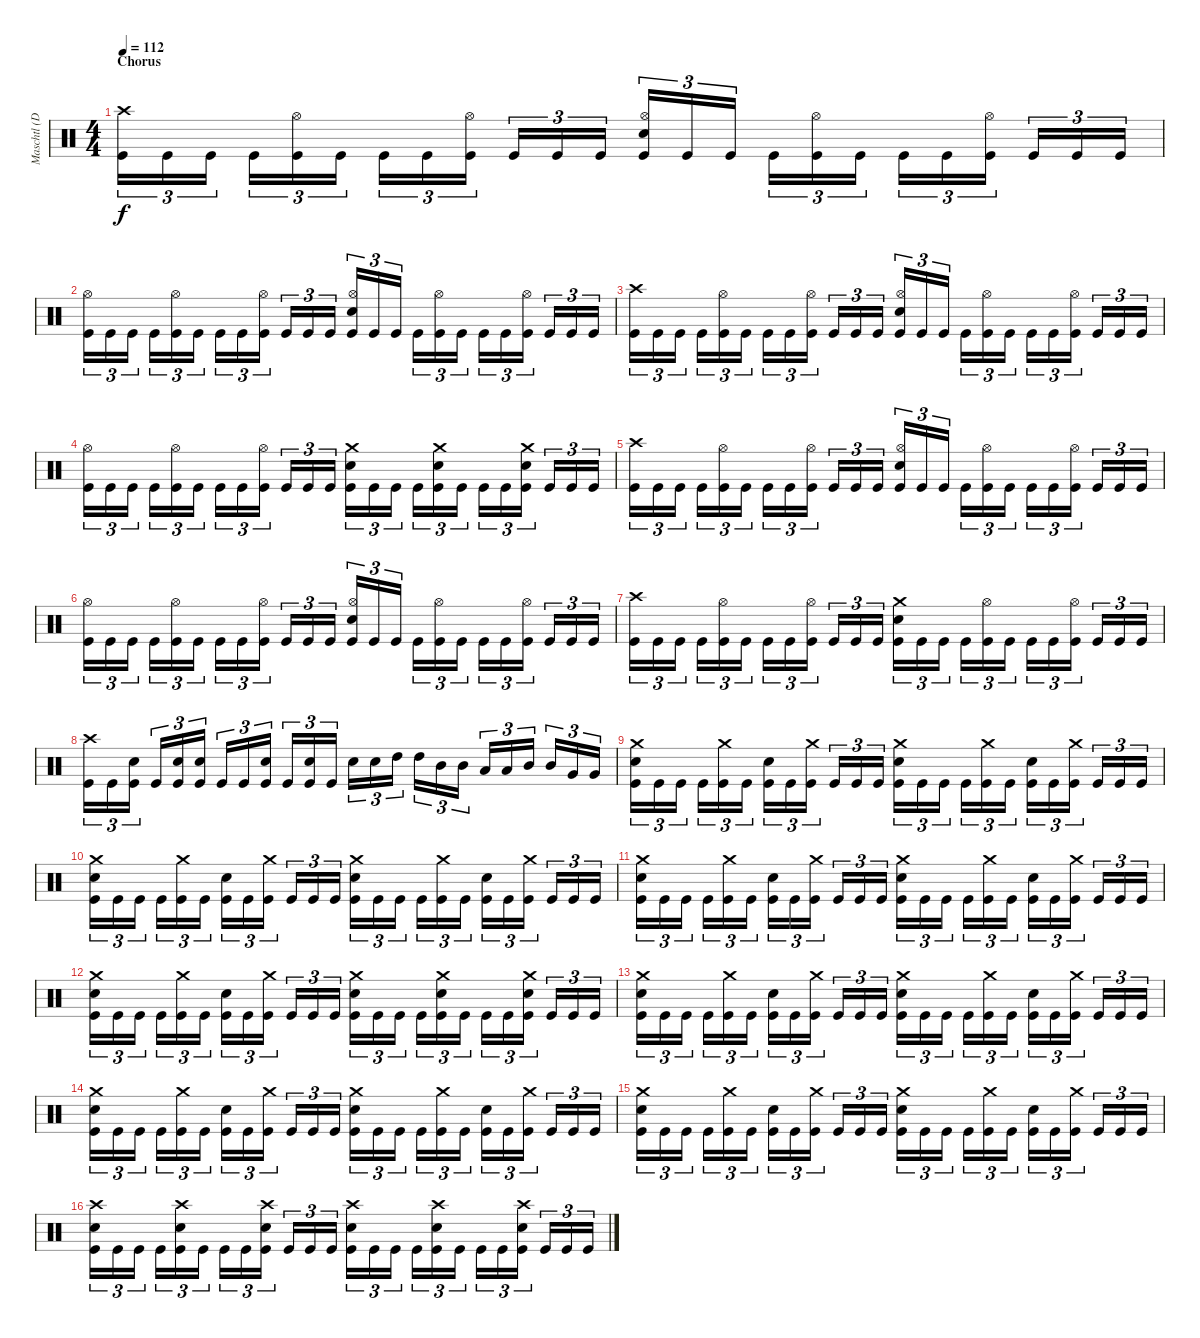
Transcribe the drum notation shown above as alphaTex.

\track ("Maschtl (Drums)" "Maschtl (D") {instrument percussion}
\staff {score}
\articulation defaults
\ts (4 4)
\section ("" "Chorus")
\tempo 112
\clef neutral
\ks c
("Crash high (hit)" "Kick (hit)").16{tu (3 2) dy f} "Kick (hit)".16{tu (3 2)} "Kick (hit)".16{tu (3 2)} "Kick (hit)".16{tu (3 2)} ("Hi-Hat (open)" "Kick (hit)").16{tu (3 2)} "Kick (hit)".16{tu (3 2)} "Kick (hit)".16{tu (3 2)} "Kick (hit)".16{tu (3 2)} ("Hi-Hat (open)" "Kick (hit)").16{tu (3 2)} "Kick (hit)".16{tu (3 2)} "Kick (hit)".16{tu (3 2)} "Kick (hit)".16{tu (3 2)} ("Hi-Hat (open)" "Electric Snare (hit)" "Kick (hit)").16{tu (3 2)} "Kick (hit)".16{tu (3 2)} "Kick (hit)".16{tu (3 2)} "Kick (hit)".16{tu (3 2)} ("Hi-Hat (open)" "Kick (hit)").16{tu (3 2)} "Kick (hit)".16{tu (3 2)} "Kick (hit)".16{tu (3 2)} "Kick (hit)".16{tu (3 2)} ("Hi-Hat (open)" "Kick (hit)").16{tu (3 2)} "Kick (hit)".16{tu (3 2)} "Kick (hit)".16{tu (3 2)} "Kick (hit)".16{tu (3 2)} |
("Hi-Hat (open)" "Kick (hit)").16{tu (3 2)} "Kick (hit)".16{tu (3 2)} "Kick (hit)".16{tu (3 2)} "Kick (hit)".16{tu (3 2)} ("Hi-Hat (open)" "Kick (hit)").16{tu (3 2)} "Kick (hit)".16{tu (3 2)} "Kick (hit)".16{tu (3 2)} "Kick (hit)".16{tu (3 2)} ("Hi-Hat (open)" "Kick (hit)").16{tu (3 2)} "Kick (hit)".16{tu (3 2)} "Kick (hit)".16{tu (3 2)} "Kick (hit)".16{tu (3 2)} ("Hi-Hat (open)" "Electric Snare (hit)" "Kick (hit)").16{tu (3 2)} "Kick (hit)".16{tu (3 2)} "Kick (hit)".16{tu (3 2)} "Kick (hit)".16{tu (3 2)} ("Hi-Hat (open)" "Kick (hit)").16{tu (3 2)} "Kick (hit)".16{tu (3 2)} "Kick (hit)".16{tu (3 2)} "Kick (hit)".16{tu (3 2)} ("Hi-Hat (open)" "Kick (hit)").16{tu (3 2)} "Kick (hit)".16{tu (3 2)} "Kick (hit)".16{tu (3 2)} "Kick (hit)".16{tu (3 2)} |
("Crash high (hit)" "Kick (hit)").16{tu (3 2)} "Kick (hit)".16{tu (3 2)} "Kick (hit)".16{tu (3 2)} "Kick (hit)".16{tu (3 2)} ("Hi-Hat (open)" "Kick (hit)").16{tu (3 2)} "Kick (hit)".16{tu (3 2)} "Kick (hit)".16{tu (3 2)} "Kick (hit)".16{tu (3 2)} ("Hi-Hat (open)" "Kick (hit)").16{tu (3 2)} "Kick (hit)".16{tu (3 2)} "Kick (hit)".16{tu (3 2)} "Kick (hit)".16{tu (3 2)} ("Hi-Hat (open)" "Electric Snare (hit)" "Kick (hit)").16{tu (3 2)} "Kick (hit)".16{tu (3 2)} "Kick (hit)".16{tu (3 2)} "Kick (hit)".16{tu (3 2)} ("Hi-Hat (open)" "Kick (hit)").16{tu (3 2)} "Kick (hit)".16{tu (3 2)} "Kick (hit)".16{tu (3 2)} "Kick (hit)".16{tu (3 2)} ("Hi-Hat (open)" "Kick (hit)").16{tu (3 2)} "Kick (hit)".16{tu (3 2)} "Kick (hit)".16{tu (3 2)} "Kick (hit)".16{tu (3 2)} |
("Hi-Hat (open)" "Kick (hit)").16{tu (3 2)} "Kick (hit)".16{tu (3 2)} "Kick (hit)".16{tu (3 2)} "Kick (hit)".16{tu (3 2)} ("Hi-Hat (open)" "Kick (hit)").16{tu (3 2)} "Kick (hit)".16{tu (3 2)} "Kick (hit)".16{tu (3 2)} "Kick (hit)".16{tu (3 2)} ("Hi-Hat (open)" "Kick (hit)").16{tu (3 2)} "Kick (hit)".16{tu (3 2)} "Kick (hit)".16{tu (3 2)} "Kick (hit)".16{tu (3 2)} ("Crash medium (hit)" "Electric Snare (hit)" "Kick (hit)").16{tu (3 2)} "Kick (hit)".16{tu (3 2)} "Kick (hit)".16{tu (3 2)} "Kick (hit)".16{tu (3 2)} ("Crash medium (hit)" "Electric Snare (hit)" "Kick (hit)").16{tu (3 2)} "Kick (hit)".16{tu (3 2)} "Kick (hit)".16{tu (3 2)} "Kick (hit)".16{tu (3 2)} ("Crash medium (hit)" "Electric Snare (hit)" "Kick (hit)").16{tu (3 2)} "Kick (hit)".16{tu (3 2)} "Kick (hit)".16{tu (3 2)} "Kick (hit)".16{tu (3 2)} |
("Crash high (hit)" "Kick (hit)").16{tu (3 2)} "Kick (hit)".16{tu (3 2)} "Kick (hit)".16{tu (3 2)} "Kick (hit)".16{tu (3 2)} ("Hi-Hat (open)" "Kick (hit)").16{tu (3 2)} "Kick (hit)".16{tu (3 2)} "Kick (hit)".16{tu (3 2)} "Kick (hit)".16{tu (3 2)} ("Hi-Hat (open)" "Kick (hit)").16{tu (3 2)} "Kick (hit)".16{tu (3 2)} "Kick (hit)".16{tu (3 2)} "Kick (hit)".16{tu (3 2)} ("Hi-Hat (open)" "Electric Snare (hit)" "Kick (hit)").16{tu (3 2)} "Kick (hit)".16{tu (3 2)} "Kick (hit)".16{tu (3 2)} "Kick (hit)".16{tu (3 2)} ("Hi-Hat (open)" "Kick (hit)").16{tu (3 2)} "Kick (hit)".16{tu (3 2)} "Kick (hit)".16{tu (3 2)} "Kick (hit)".16{tu (3 2)} ("Hi-Hat (open)" "Kick (hit)").16{tu (3 2)} "Kick (hit)".16{tu (3 2)} "Kick (hit)".16{tu (3 2)} "Kick (hit)".16{tu (3 2)} |
("Hi-Hat (open)" "Kick (hit)").16{tu (3 2)} "Kick (hit)".16{tu (3 2)} "Kick (hit)".16{tu (3 2)} "Kick (hit)".16{tu (3 2)} ("Hi-Hat (open)" "Kick (hit)").16{tu (3 2)} "Kick (hit)".16{tu (3 2)} "Kick (hit)".16{tu (3 2)} "Kick (hit)".16{tu (3 2)} ("Hi-Hat (open)" "Kick (hit)").16{tu (3 2)} "Kick (hit)".16{tu (3 2)} "Kick (hit)".16{tu (3 2)} "Kick (hit)".16{tu (3 2)} ("Hi-Hat (open)" "Electric Snare (hit)" "Kick (hit)").16{tu (3 2)} "Kick (hit)".16{tu (3 2)} "Kick (hit)".16{tu (3 2)} "Kick (hit)".16{tu (3 2)} ("Hi-Hat (open)" "Kick (hit)").16{tu (3 2)} "Kick (hit)".16{tu (3 2)} "Kick (hit)".16{tu (3 2)} "Kick (hit)".16{tu (3 2)} ("Hi-Hat (open)" "Kick (hit)").16{tu (3 2)} "Kick (hit)".16{tu (3 2)} "Kick (hit)".16{tu (3 2)} "Kick (hit)".16{tu (3 2)} |
("Crash high (hit)" "Kick (hit)").16{tu (3 2)} "Kick (hit)".16{tu (3 2)} "Kick (hit)".16{tu (3 2)} "Kick (hit)".16{tu (3 2)} ("Hi-Hat (open)" "Kick (hit)").16{tu (3 2)} "Kick (hit)".16{tu (3 2)} "Kick (hit)".16{tu (3 2)} "Kick (hit)".16{tu (3 2)} ("Hi-Hat (open)" "Kick (hit)").16{tu (3 2)} "Kick (hit)".16{tu (3 2)} "Kick (hit)".16{tu (3 2)} "Kick (hit)".16{tu (3 2)} ("Crash medium (hit)" "Electric Snare (hit)" "Kick (hit)").16{tu (3 2)} "Kick (hit)".16{tu (3 2)} "Kick (hit)".16{tu (3 2)} "Kick (hit)".16{tu (3 2)} ("Hi-Hat (open)" "Kick (hit)").16{tu (3 2)} "Kick (hit)".16{tu (3 2)} "Kick (hit)".16{tu (3 2)} "Kick (hit)".16{tu (3 2)} ("Hi-Hat (open)" "Kick (hit)").16{tu (3 2)} "Kick (hit)".16{tu (3 2)} "Kick (hit)".16{tu (3 2)} "Kick (hit)".16{tu (3 2)} |
("Crash high (hit)" "Kick (hit)").16{tu (3 2)} "Kick (hit)".16{tu (3 2)} ("Electric Snare (hit)" "Kick (hit)").16{tu (3 2)} "Kick (hit)".16{tu (3 2)} ("Electric Snare (hit)" "Kick (hit)").16{tu (3 2)} ("Electric Snare (hit)" "Kick (hit)").16{tu (3 2)} "Kick (hit)".16{tu (3 2)} "Kick (hit)".16{tu (3 2)} ("Electric Snare (hit)" "Kick (hit)").16{tu (3 2)} "Kick (hit)".16{tu (3 2)} ("Electric Snare (hit)" "Kick (hit)").16{tu (3 2)} "Kick (hit)".16{tu (3 2)} "Electric Snare (hit)".16{tu (3 2)} "Electric Snare (hit)".16{tu (3 2)} "High Tom (hit)".16{tu (3 2)} "High Tom (hit)".16{tu (3 2)} "Mid Tom (hit)".16{tu (3 2)} "Mid Tom (hit)".16{tu (3 2)} "Low Tom (hit)".16{tu (3 2)} "Low Tom (hit)".16{tu (3 2)} "Mid Tom (hit)".16{tu (3 2)} "Mid Tom (hit)".16{tu (3 2)} "Very Low Tom (hit)".16{tu (3 2)} "Very Low Tom (hit)".16{tu (3 2)} |
("Crash medium (hit)" "Electric Snare (hit)" "Kick (hit)").16{tu (3 2)} "Kick (hit)".16{tu (3 2)} "Kick (hit)".16{tu (3 2)} "Kick (hit)".16{tu (3 2)} ("Crash medium (hit)" "Kick (hit)").16{tu (3 2)} "Kick (hit)".16{tu (3 2)} ("Electric Snare (hit)" "Kick (hit)").16{tu (3 2)} "Kick (hit)".16{tu (3 2)} ("Crash medium (hit)" "Kick (hit)").16{tu (3 2)} "Kick (hit)".16{tu (3 2)} "Kick (hit)".16{tu (3 2)} "Kick (hit)".16{tu (3 2)} ("Crash medium (hit)" "Electric Snare (hit)" "Kick (hit)").16{tu (3 2)} "Kick (hit)".16{tu (3 2)} "Kick (hit)".16{tu (3 2)} "Kick (hit)".16{tu (3 2)} ("Crash medium (hit)" "Kick (hit)").16{tu (3 2)} "Kick (hit)".16{tu (3 2)} ("Electric Snare (hit)" "Kick (hit)").16{tu (3 2)} "Kick (hit)".16{tu (3 2)} ("Crash medium (hit)" "Kick (hit)").16{tu (3 2)} "Kick (hit)".16{tu (3 2)} "Kick (hit)".16{tu (3 2)} "Kick (hit)".16{tu (3 2)} |
("Crash medium (hit)" "Electric Snare (hit)" "Kick (hit)").16{tu (3 2)} "Kick (hit)".16{tu (3 2)} "Kick (hit)".16{tu (3 2)} "Kick (hit)".16{tu (3 2)} ("Crash medium (hit)" "Kick (hit)").16{tu (3 2)} "Kick (hit)".16{tu (3 2)} ("Electric Snare (hit)" "Kick (hit)").16{tu (3 2)} "Kick (hit)".16{tu (3 2)} ("Crash medium (hit)" "Kick (hit)").16{tu (3 2)} "Kick (hit)".16{tu (3 2)} "Kick (hit)".16{tu (3 2)} "Kick (hit)".16{tu (3 2)} ("Crash medium (hit)" "Electric Snare (hit)" "Kick (hit)").16{tu (3 2)} "Kick (hit)".16{tu (3 2)} "Kick (hit)".16{tu (3 2)} "Kick (hit)".16{tu (3 2)} ("Crash medium (hit)" "Kick (hit)").16{tu (3 2)} "Kick (hit)".16{tu (3 2)} ("Electric Snare (hit)" "Kick (hit)").16{tu (3 2)} "Kick (hit)".16{tu (3 2)} ("Crash medium (hit)" "Kick (hit)").16{tu (3 2)} "Kick (hit)".16{tu (3 2)} "Kick (hit)".16{tu (3 2)} "Kick (hit)".16{tu (3 2)} |
("Crash medium (hit)" "Electric Snare (hit)" "Kick (hit)").16{tu (3 2)} "Kick (hit)".16{tu (3 2)} "Kick (hit)".16{tu (3 2)} "Kick (hit)".16{tu (3 2)} ("Crash medium (hit)" "Kick (hit)").16{tu (3 2)} "Kick (hit)".16{tu (3 2)} ("Electric Snare (hit)" "Kick (hit)").16{tu (3 2)} "Kick (hit)".16{tu (3 2)} ("Crash medium (hit)" "Kick (hit)").16{tu (3 2)} "Kick (hit)".16{tu (3 2)} "Kick (hit)".16{tu (3 2)} "Kick (hit)".16{tu (3 2)} ("Crash medium (hit)" "Electric Snare (hit)" "Kick (hit)").16{tu (3 2)} "Kick (hit)".16{tu (3 2)} "Kick (hit)".16{tu (3 2)} "Kick (hit)".16{tu (3 2)} ("Crash medium (hit)" "Kick (hit)").16{tu (3 2)} "Kick (hit)".16{tu (3 2)} ("Electric Snare (hit)" "Kick (hit)").16{tu (3 2)} "Kick (hit)".16{tu (3 2)} ("Crash medium (hit)" "Kick (hit)").16{tu (3 2)} "Kick (hit)".16{tu (3 2)} "Kick (hit)".16{tu (3 2)} "Kick (hit)".16{tu (3 2)} |
("Crash medium (hit)" "Electric Snare (hit)" "Kick (hit)").16{tu (3 2)} "Kick (hit)".16{tu (3 2)} "Kick (hit)".16{tu (3 2)} "Kick (hit)".16{tu (3 2)} ("Crash medium (hit)" "Kick (hit)").16{tu (3 2)} "Kick (hit)".16{tu (3 2)} ("Electric Snare (hit)" "Kick (hit)").16{tu (3 2)} "Kick (hit)".16{tu (3 2)} ("Crash medium (hit)" "Kick (hit)").16{tu (3 2)} "Kick (hit)".16{tu (3 2)} "Kick (hit)".16{tu (3 2)} "Kick (hit)".16{tu (3 2)} ("Crash medium (hit)" "Electric Snare (hit)" "Kick (hit)").16{tu (3 2)} "Kick (hit)".16{tu (3 2)} "Kick (hit)".16{tu (3 2)} "Kick (hit)".16{tu (3 2)} ("Crash medium (hit)" "Electric Snare (hit)" "Kick (hit)").16{tu (3 2)} "Kick (hit)".16{tu (3 2)} "Kick (hit)".16{tu (3 2)} "Kick (hit)".16{tu (3 2)} ("Crash medium (hit)" "Electric Snare (hit)" "Kick (hit)").16{tu (3 2)} "Kick (hit)".16{tu (3 2)} "Kick (hit)".16{tu (3 2)} "Kick (hit)".16{tu (3 2)} |
("Crash medium (hit)" "Electric Snare (hit)" "Kick (hit)").16{tu (3 2)} "Kick (hit)".16{tu (3 2)} "Kick (hit)".16{tu (3 2)} "Kick (hit)".16{tu (3 2)} ("Crash medium (hit)" "Kick (hit)").16{tu (3 2)} "Kick (hit)".16{tu (3 2)} ("Electric Snare (hit)" "Kick (hit)").16{tu (3 2)} "Kick (hit)".16{tu (3 2)} ("Crash medium (hit)" "Kick (hit)").16{tu (3 2)} "Kick (hit)".16{tu (3 2)} "Kick (hit)".16{tu (3 2)} "Kick (hit)".16{tu (3 2)} ("Crash medium (hit)" "Electric Snare (hit)" "Kick (hit)").16{tu (3 2)} "Kick (hit)".16{tu (3 2)} "Kick (hit)".16{tu (3 2)} "Kick (hit)".16{tu (3 2)} ("Crash medium (hit)" "Kick (hit)").16{tu (3 2)} "Kick (hit)".16{tu (3 2)} ("Electric Snare (hit)" "Kick (hit)").16{tu (3 2)} "Kick (hit)".16{tu (3 2)} ("Crash medium (hit)" "Kick (hit)").16{tu (3 2)} "Kick (hit)".16{tu (3 2)} "Kick (hit)".16{tu (3 2)} "Kick (hit)".16{tu (3 2)} |
("Crash medium (hit)" "Electric Snare (hit)" "Kick (hit)").16{tu (3 2)} "Kick (hit)".16{tu (3 2)} "Kick (hit)".16{tu (3 2)} "Kick (hit)".16{tu (3 2)} ("Crash medium (hit)" "Kick (hit)").16{tu (3 2)} "Kick (hit)".16{tu (3 2)} ("Electric Snare (hit)" "Kick (hit)").16{tu (3 2)} "Kick (hit)".16{tu (3 2)} ("Crash medium (hit)" "Kick (hit)").16{tu (3 2)} "Kick (hit)".16{tu (3 2)} "Kick (hit)".16{tu (3 2)} "Kick (hit)".16{tu (3 2)} ("Crash medium (hit)" "Electric Snare (hit)" "Kick (hit)").16{tu (3 2)} "Kick (hit)".16{tu (3 2)} "Kick (hit)".16{tu (3 2)} "Kick (hit)".16{tu (3 2)} ("Crash medium (hit)" "Kick (hit)").16{tu (3 2)} "Kick (hit)".16{tu (3 2)} ("Electric Snare (hit)" "Kick (hit)").16{tu (3 2)} "Kick (hit)".16{tu (3 2)} ("Crash medium (hit)" "Kick (hit)").16{tu (3 2)} "Kick (hit)".16{tu (3 2)} "Kick (hit)".16{tu (3 2)} "Kick (hit)".16{tu (3 2)} |
("Crash medium (hit)" "Electric Snare (hit)" "Kick (hit)").16{tu (3 2)} "Kick (hit)".16{tu (3 2)} "Kick (hit)".16{tu (3 2)} "Kick (hit)".16{tu (3 2)} ("Crash medium (hit)" "Kick (hit)").16{tu (3 2)} "Kick (hit)".16{tu (3 2)} ("Electric Snare (hit)" "Kick (hit)").16{tu (3 2)} "Kick (hit)".16{tu (3 2)} ("Crash medium (hit)" "Kick (hit)").16{tu (3 2)} "Kick (hit)".16{tu (3 2)} "Kick (hit)".16{tu (3 2)} "Kick (hit)".16{tu (3 2)} ("Crash medium (hit)" "Electric Snare (hit)" "Kick (hit)").16{tu (3 2)} "Kick (hit)".16{tu (3 2)} "Kick (hit)".16{tu (3 2)} "Kick (hit)".16{tu (3 2)} ("Crash medium (hit)" "Kick (hit)").16{tu (3 2)} "Kick (hit)".16{tu (3 2)} ("Electric Snare (hit)" "Kick (hit)").16{tu (3 2)} "Kick (hit)".16{tu (3 2)} ("Crash medium (hit)" "Kick (hit)").16{tu (3 2)} "Kick (hit)".16{tu (3 2)} "Kick (hit)".16{tu (3 2)} "Kick (hit)".16{tu (3 2)} |
("Crash high (hit)" "Electric Snare (hit)" "Kick (hit)").16{tu (3 2)} "Kick (hit)".16{tu (3 2)} "Kick (hit)".16{tu (3 2)} "Kick (hit)".16{tu (3 2)} ("Crash high (hit)" "Electric Snare (hit)" "Kick (hit)").16{tu (3 2)} "Kick (hit)".16{tu (3 2)} "Kick (hit)".16{tu (3 2)} "Kick (hit)".16{tu (3 2)} ("Crash high (hit)" "Electric Snare (hit)" "Kick (hit)").16{tu (3 2)} "Kick (hit)".16{tu (3 2)} "Kick (hit)".16{tu (3 2)} "Kick (hit)".16{tu (3 2)} ("Crash high (hit)" "Electric Snare (hit)" "Kick (hit)").16{tu (3 2)} "Kick (hit)".16{tu (3 2)} "Kick (hit)".16{tu (3 2)} "Kick (hit)".16{tu (3 2)} ("Crash high (hit)" "Electric Snare (hit)" "Kick (hit)").16{tu (3 2)} "Kick (hit)".16{tu (3 2)} "Kick (hit)".16{tu (3 2)} "Kick (hit)".16{tu (3 2)} ("Crash high (hit)" "Electric Snare (hit)" "Kick (hit)").16{tu (3 2)} "Kick (hit)".16{tu (3 2)} "Kick (hit)".16{tu (3 2)} "Kick (hit)".16{tu (3 2)}
